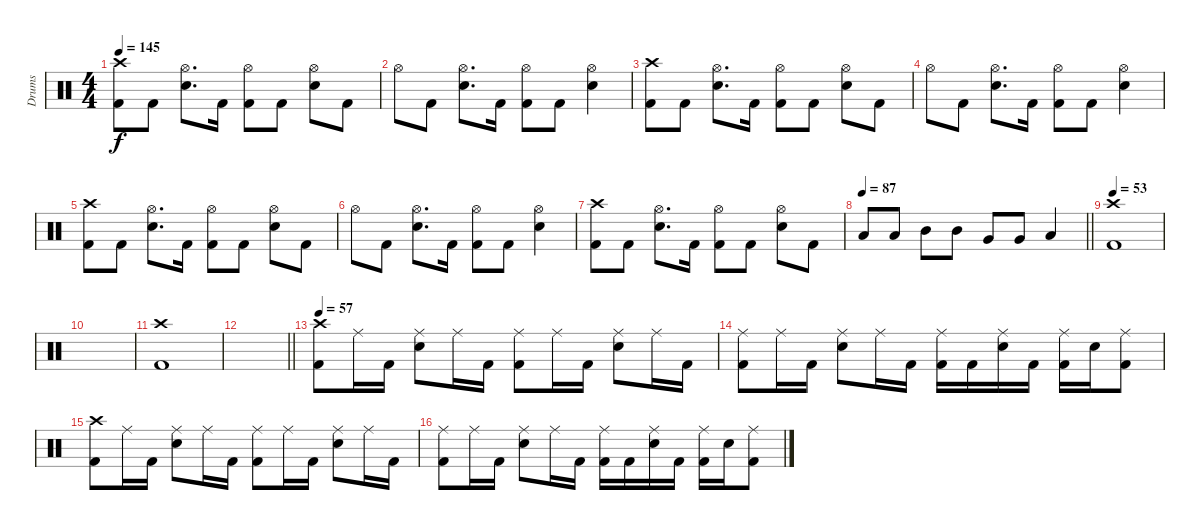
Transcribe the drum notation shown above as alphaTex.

\track ("Drums" "Drums") {instrument percussion}
\staff {score}
\articulation defaults
\ts (4 4)
\tempo 145
\clef neutral
\ks c
("Crash high (hit)" "Kick (hit) 2").8{dy f} "Kick (hit) 2".8 ("Hi-Hat (open)" "Electric Snare (hit)").8{d} "Kick (hit) 2".16 ("Hi-Hat (open)" "Kick (hit) 2").8 "Kick (hit) 2".8 ("Hi-Hat (open)" "Electric Snare (hit)").8 "Kick (hit) 2".8 |
"Hi-Hat (open)".8 "Kick (hit) 2".8 ("Hi-Hat (open)" "Electric Snare (hit)").8{d} "Kick (hit) 2".16 ("Hi-Hat (open)" "Kick (hit) 2").8 "Kick (hit) 2".8 ("Hi-Hat (open)" "Electric Snare (hit)").4 |
("Crash high (hit)" "Kick (hit) 2").8 "Kick (hit) 2".8 ("Hi-Hat (open)" "Electric Snare (hit)").8{d} "Kick (hit) 2".16 ("Hi-Hat (open)" "Kick (hit) 2").8 "Kick (hit) 2".8 ("Hi-Hat (open)" "Electric Snare (hit)").8 "Kick (hit) 2".8 |
"Hi-Hat (open)".8 "Kick (hit) 2".8 ("Hi-Hat (open)" "Electric Snare (hit)").8{d} "Kick (hit) 2".16 ("Hi-Hat (open)" "Kick (hit) 2").8 "Kick (hit) 2".8 ("Hi-Hat (open)" "Electric Snare (hit)").4 |
("Crash high (hit)" "Kick (hit) 2").8 "Kick (hit) 2".8 ("Hi-Hat (open)" "Electric Snare (hit)").8{d} "Kick (hit) 2".16 ("Hi-Hat (open)" "Kick (hit) 2").8 "Kick (hit) 2".8 ("Hi-Hat (open)" "Electric Snare (hit)").8 "Kick (hit) 2".8 |
"Hi-Hat (open)".8 "Kick (hit) 2".8 ("Hi-Hat (open)" "Electric Snare (hit)").8{d} "Kick (hit) 2".16 ("Hi-Hat (open)" "Kick (hit) 2").8 "Kick (hit) 2".8 ("Hi-Hat (open)" "Electric Snare (hit)").4 |
("Crash high (hit)" "Kick (hit) 2").8 "Kick (hit) 2".8 ("Hi-Hat (open)" "Electric Snare (hit)").8{d} "Kick (hit) 2".16 ("Hi-Hat (open)" "Kick (hit) 2").8 "Kick (hit) 2".8 ("Hi-Hat (open)" "Electric Snare (hit)").8 "Kick (hit) 2".8 |
\tempo 87
\barLineRight lightlight "Low Tom (hit)".8 "Low Tom (hit)".8 "Mid Tom (hit)".8 "Mid Tom (hit)".8 "Very Low Tom (hit)".8 "Very Low Tom (hit)".8 "Low Tom (hit)".4
|
\tempo 53
("Crash high (hit)" "Kick (hit) 2").1 |
|
("Crash high (hit)" "Kick (hit) 2").1 |
\barLineRight lightlight
|
\tempo 57
("Crash high (hit)" "Kick (hit) 2").8 "Ride (middle)".16 "Kick (hit) 2".16 ("Ride (middle)" "Electric Snare (hit)").8 "Ride (middle)".16 "Kick (hit) 2".16 ("Ride (middle)" "Kick (hit) 2").8 "Ride (middle)".16 "Kick (hit) 2".16 ("Ride (middle)" "Electric Snare (hit)").8 "Ride (middle)".16 "Kick (hit) 2".16 |
("Ride (middle)" "Kick (hit) 2").8 "Ride (middle)".16 "Kick (hit) 2".16 ("Ride (middle)" "Electric Snare (hit)").8 "Ride (middle)".16 "Kick (hit) 2".16 ("Ride (middle)" "Kick (hit) 2").16 "Kick (hit) 2".16 ("Ride (middle)" "Electric Snare (hit)").16 "Kick (hit) 2".16 ("Ride (middle)" "Kick (hit) 2").16 "Electric Snare (hit)".16 ("Ride (middle)" "Kick (hit) 2").8 |
("Crash high (hit)" "Kick (hit) 2").8 "Ride (middle)".16 "Kick (hit) 2".16 ("Ride (middle)" "Electric Snare (hit)").8 "Ride (middle)".16 "Kick (hit) 2".16 ("Ride (middle)" "Kick (hit) 2").8 "Ride (middle)".16 "Kick (hit) 2".16 ("Ride (middle)" "Electric Snare (hit)").8 "Ride (middle)".16 "Kick (hit) 2".16 |
("Ride (middle)" "Kick (hit) 2").8 "Ride (middle)".16 "Kick (hit) 2".16 ("Ride (middle)" "Electric Snare (hit)").8 "Ride (middle)".16 "Kick (hit) 2".16 ("Ride (middle)" "Kick (hit) 2").16 "Kick (hit) 2".16 ("Ride (middle)" "Electric Snare (hit)").16 "Kick (hit) 2".16 ("Ride (middle)" "Kick (hit) 2").16 "Electric Snare (hit)".16 ("Ride (middle)" "Kick (hit) 2").8
